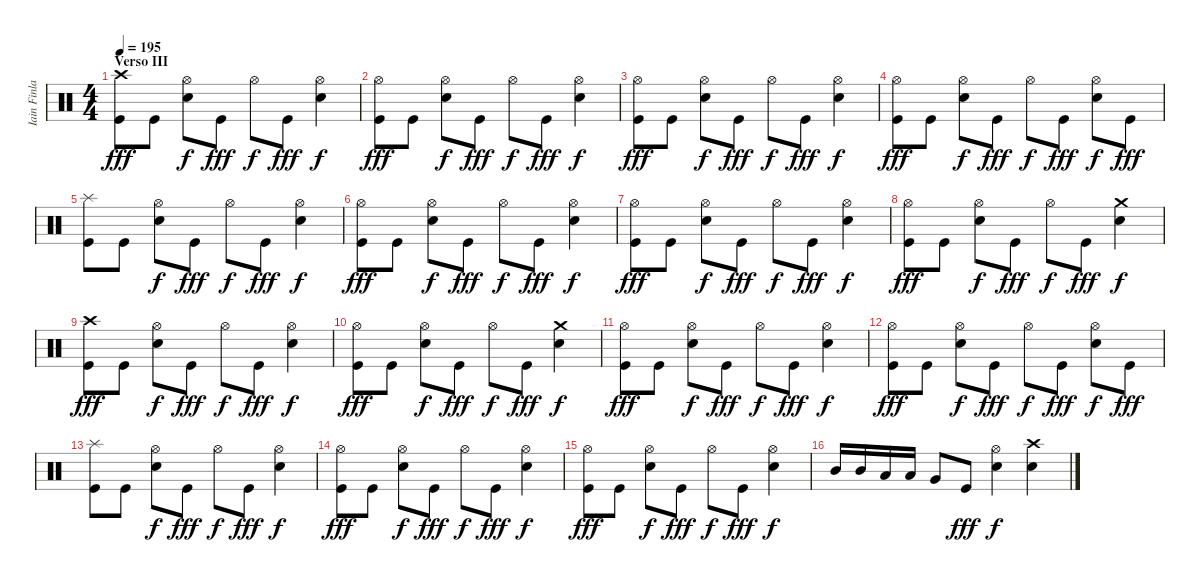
\track ("Iain Finlay (Batería)" "Iain Finla") {instrument percussion}
\staff {score}
\articulation defaults
\ts (4 4)
\section ("" "Verso III")
\tempo 195
\clef neutral
\ks c
("Crash high (hit)" "Kick (hit)").8{dy fff} "Kick (hit)".8 ("Hi-Hat (open)" "Electric Snare (hit)").8{dy f} "Kick (hit)".8{dy fff} "Hi-Hat (open)".8{dy f} "Kick (hit)".8{dy fff} ("Hi-Hat (open)" "Electric Snare (hit)").4{dy f} |
("Hi-Hat (open)" "Kick (hit)").8{dy fff} "Kick (hit)".8 ("Hi-Hat (open)" "Electric Snare (hit)").8{dy f} "Kick (hit)".8{dy fff} "Hi-Hat (open)".8{dy f} "Kick (hit)".8{dy fff} ("Hi-Hat (open)" "Electric Snare (hit)").4{dy f} |
("Hi-Hat (open)" "Kick (hit)").8{dy fff} "Kick (hit)".8 ("Hi-Hat (open)" "Electric Snare (hit)").8{dy f} "Kick (hit)".8{dy fff} "Hi-Hat (open)".8{dy f} "Kick (hit)".8{dy fff} ("Hi-Hat (open)" "Electric Snare (hit)").4{dy f} |
("Hi-Hat (open)" "Kick (hit)").8{dy fff} "Kick (hit)".8 ("Hi-Hat (open)" "Electric Snare (hit)").8{dy f} "Kick (hit)".8{dy fff} "Hi-Hat (open)".8{dy f} "Kick (hit)".8{dy fff} ("Hi-Hat (open)" "Electric Snare (hit)").8{dy f} "Kick (hit)".8{dy fff} |
("Splash (hit)" "Kick (hit)").8 "Kick (hit)".8 ("Hi-Hat (open)" "Electric Snare (hit)").8{dy f} "Kick (hit)".8{dy fff} "Hi-Hat (open)".8{dy f} "Kick (hit)".8{dy fff} ("Hi-Hat (open)" "Electric Snare (hit)").4{dy f} |
("Hi-Hat (open)" "Kick (hit)").8{dy fff} "Kick (hit)".8 ("Hi-Hat (open)" "Electric Snare (hit)").8{dy f} "Kick (hit)".8{dy fff} "Hi-Hat (open)".8{dy f} "Kick (hit)".8{dy fff} ("Hi-Hat (open)" "Electric Snare (hit)").4{dy f} |
("Hi-Hat (open)" "Kick (hit)").8{dy fff} "Kick (hit)".8 ("Hi-Hat (open)" "Electric Snare (hit)").8{dy f} "Kick (hit)".8{dy fff} "Hi-Hat (open)".8{dy f} "Kick (hit)".8{dy fff} ("Hi-Hat (open)" "Electric Snare (hit)").4{dy f} |
("Hi-Hat (open)" "Kick (hit)").8{dy fff} "Kick (hit)".8 ("Hi-Hat (open)" "Electric Snare (hit)").8{dy f} "Kick (hit)".8{dy fff} "Hi-Hat (open)".8{dy f} "Kick (hit)".8{dy fff} ("Crash medium (hit)" "Electric Snare (hit)").4{dy f} |
("Crash high (hit)" "Kick (hit)").8{dy fff} "Kick (hit)".8 ("Hi-Hat (open)" "Electric Snare (hit)").8{dy f} "Kick (hit)".8{dy fff} "Hi-Hat (open)".8{dy f} "Kick (hit)".8{dy fff} ("Hi-Hat (open)" "Electric Snare (hit)").4{dy f} |
("Hi-Hat (open)" "Kick (hit)").8{dy fff} "Kick (hit)".8 ("Hi-Hat (open)" "Electric Snare (hit)").8{dy f} "Kick (hit)".8{dy fff} "Hi-Hat (open)".8{dy f} "Kick (hit)".8{dy fff} ("Crash medium (hit)" "Electric Snare (hit)").4{dy f} |
("Hi-Hat (open)" "Kick (hit)").8{dy fff} "Kick (hit)".8 ("Hi-Hat (open)" "Electric Snare (hit)").8{dy f} "Kick (hit)".8{dy fff} "Hi-Hat (open)".8{dy f} "Kick (hit)".8{dy fff} ("Hi-Hat (open)" "Electric Snare (hit)").4{dy f} |
("Hi-Hat (open)" "Kick (hit)").8{dy fff} "Kick (hit)".8 ("Hi-Hat (open)" "Electric Snare (hit)").8{dy f} "Kick (hit)".8{dy fff} "Hi-Hat (open)".8{dy f} "Kick (hit)".8{dy fff} ("Hi-Hat (open)" "Electric Snare (hit)").8{dy f} "Kick (hit)".8{dy fff} |
("Splash (hit)" "Kick (hit)").8 "Kick (hit)".8 ("Hi-Hat (open)" "Electric Snare (hit)").8{dy f} "Kick (hit)".8{dy fff} "Hi-Hat (open)".8{dy f} "Kick (hit)".8{dy fff} ("Hi-Hat (open)" "Electric Snare (hit)").4{dy f} |
("Hi-Hat (open)" "Kick (hit)").8{dy fff} "Kick (hit)".8 ("Hi-Hat (open)" "Electric Snare (hit)").8{dy f} "Kick (hit)".8{dy fff} "Hi-Hat (open)".8{dy f} "Kick (hit)".8{dy fff} ("Hi-Hat (open)" "Electric Snare (hit)").4{dy f} |
("Hi-Hat (open)" "Kick (hit)").8{dy fff} "Kick (hit)".8 ("Hi-Hat (open)" "Electric Snare (hit)").8{dy f} "Kick (hit)".8{dy fff} "Hi-Hat (open)".8{dy f} "Kick (hit)".8{dy fff} ("Hi-Hat (open)" "Electric Snare (hit)").4{dy f} |
"Mid Tom (hit)".16 "Mid Tom (hit)".16 "Low Tom (hit)".16 "Low Tom (hit)".16 "Very Low Tom (hit)".8 "Kick (hit)".8{dy fff} ("Hi-Hat (open)" "Electric Snare (hit)").4{dy f} ("Crash high (hit)" "Electric Snare (hit)").4
